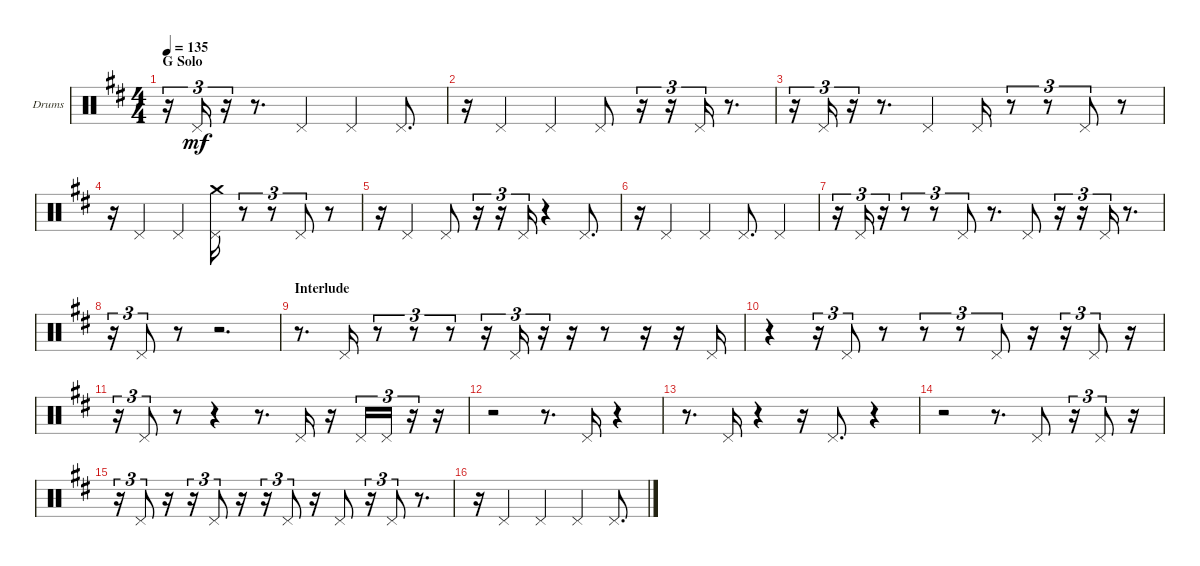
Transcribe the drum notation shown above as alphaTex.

\bracketExtendMode groupsimilarinstruments
\firstSystemTrackNameOrientation horizontal
\otherSystemsTrackNameOrientation horizontal
\track ("HH" "Drums") {instrument percussion}
\staff {score}
\articulation defaults
\ts (4 4)
\section ("" "G Solo")
\tempo 135
\clef neutral
\ks d
r.16{tu (3 2) dy mf} "Pedal Hi-Hat (hit)".16{tu (3 2)} r.16{tu (3 2)} r.8{d} "Pedal Hi-Hat (hit)".4 "Pedal Hi-Hat (hit)".4 "Pedal Hi-Hat (hit)".8{d} |
r.16 "Pedal Hi-Hat (hit)".4 "Pedal Hi-Hat (hit)".4 "Pedal Hi-Hat (hit)".8 r.16{tu (3 2)} r.16{tu (3 2)} "Pedal Hi-Hat (hit)".16{tu (3 2)} r.8{d} |
r.16{tu (3 2)} "Pedal Hi-Hat (hit)".16{tu (3 2)} r.16{tu (3 2)} r.8{d} "Pedal Hi-Hat (hit)".4 "Pedal Hi-Hat (hit)".16 r.8{tu (3 2)} r.8{tu (3 2)} "Pedal Hi-Hat (hit)".8{tu (3 2)} r.8 |
r.16 "Pedal Hi-Hat (hit)".4 "Pedal Hi-Hat (hit)".4 ("Pedal Hi-Hat (hit)" "Crash medium (hit)").16 r.8{tu (3 2)} r.8{tu (3 2)} "Pedal Hi-Hat (hit)".8{tu (3 2)} r.8 |
r.16 "Pedal Hi-Hat (hit)".4 "Pedal Hi-Hat (hit)".8 r.16{tu (3 2)} r.16{tu (3 2)} "Pedal Hi-Hat (hit)".16{tu (3 2)} r.4 "Pedal Hi-Hat (hit)".8{d} |
r.16 "Pedal Hi-Hat (hit)".4 "Pedal Hi-Hat (hit)".4 "Pedal Hi-Hat (hit)".8{d} "Pedal Hi-Hat (hit)".4 |
r.16{tu (3 2)} "Pedal Hi-Hat (hit)".16{tu (3 2)} r.16{tu (3 2)} r.8{tu (3 2)} r.8{tu (3 2)} "Pedal Hi-Hat (hit)".8{tu (3 2)} r.8{d} "Pedal Hi-Hat (hit)".8 r.16{tu (3 2)} r.16{tu (3 2)} "Pedal Hi-Hat (hit)".16{tu (3 2)} r.8{d} |
r.16{tu (3 2)} "Pedal Hi-Hat (hit)".8{tu (3 2)} r.8 r.2{d} |
\section ("" "Interlude")
r.8{d} "Pedal Hi-Hat (hit)".16 r.8{tu (3 2)} r.8{tu (3 2)} r.8{tu (3 2)} r.16{tu (3 2)} "Pedal Hi-Hat (hit)".16{tu (3 2)} r.16{tu (3 2)} r.16 r.8 r.16 r.16 "Pedal Hi-Hat (hit)".16 |
r.4 r.16{tu (3 2)} "Pedal Hi-Hat (hit)".8{tu (3 2)} r.8 r.8{tu (3 2)} r.8{tu (3 2)} "Pedal Hi-Hat (hit)".8{tu (3 2)} r.16 r.16{tu (3 2)} "Pedal Hi-Hat (hit)".8{tu (3 2)} r.16 |
r.16{tu (3 2)} "Pedal Hi-Hat (hit)".8{tu (3 2)} r.8 r.4 r.8{d} "Pedal Hi-Hat (hit)".16 r.16 "Pedal Hi-Hat (hit)".16{tu (3 2)} "Pedal Hi-Hat (hit)".16{tu (3 2)} r.16{tu (3 2)} r.16 |
r.2 r.8{d} "Pedal Hi-Hat (hit)".16 r.4 |
r.8{d} "Pedal Hi-Hat (hit)".16 r.4 r.16 "Pedal Hi-Hat (hit)".8{d} r.4 |
r.2 r.8{d} "Pedal Hi-Hat (hit)".8 r.16{tu (3 2)} "Pedal Hi-Hat (hit)".8{tu (3 2)} r.16 |
r.16{tu (3 2)} "Pedal Hi-Hat (hit)".8{tu (3 2)} r.16 r.16{tu (3 2)} "Pedal Hi-Hat (hit)".8{tu (3 2)} r.16 r.16{tu (3 2)} "Pedal Hi-Hat (hit)".8{tu (3 2)} r.16 "Pedal Hi-Hat (hit)".8 r.16{tu (3 2)} "Pedal Hi-Hat (hit)".8{tu (3 2)} r.8{d} |
r.16 "Pedal Hi-Hat (hit)".4 "Pedal Hi-Hat (hit)".4 "Pedal Hi-Hat (hit)".4 "Pedal Hi-Hat (hit)".8{d}
